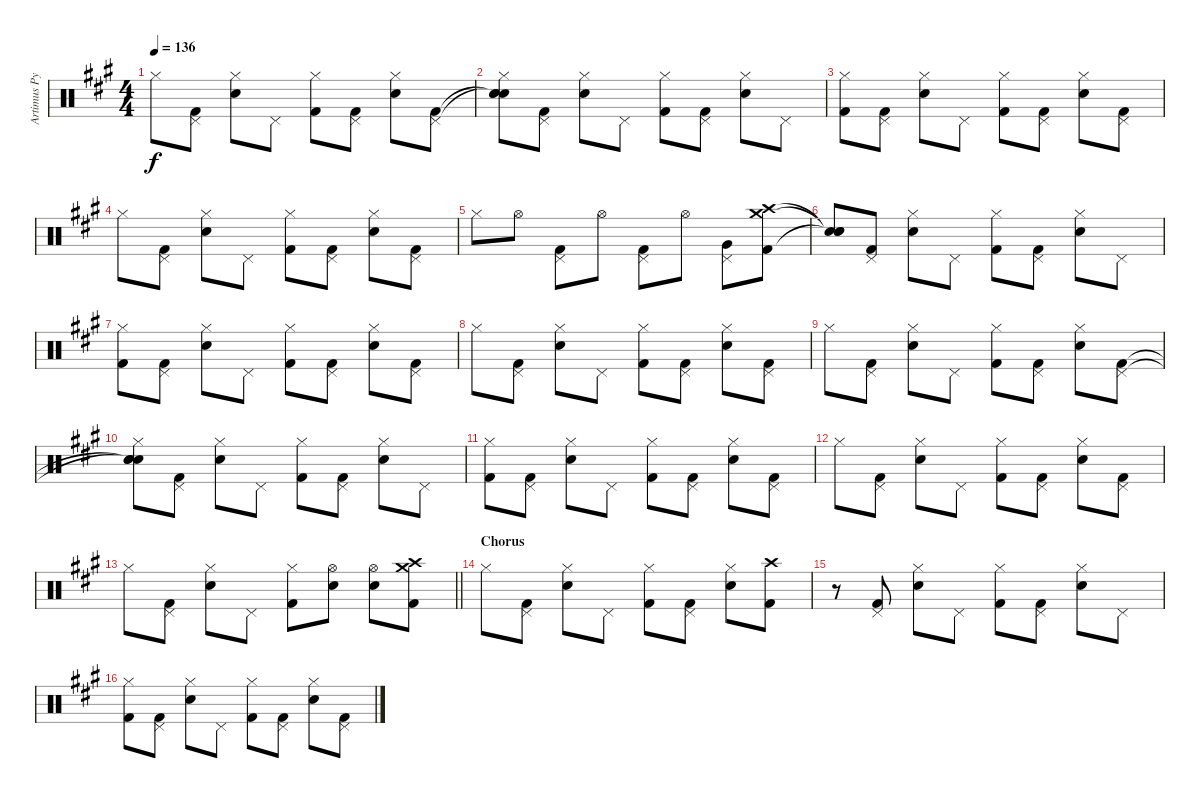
\track ("Artimus Pyle - Drums" "Artimus Py") {instrument percussion}
\staff {score}
\articulation defaults
\ts (4 4)
\tempo 136
\clef neutral
\ks a "Hi-Hat (closed)".8{dy f}
("Pedal Hi-Hat (hit)" "Kick (hit) 2").8 ("Snare (hit) 2" "Hi-Hat (closed)").8 "Pedal Hi-Hat (hit)".8 ("Hi-Hat (closed)" "Kick (hit) 2").8 ("Pedal Hi-Hat (hit)" "Kick (hit) 2").8 ("Snare (hit) 2" "Hi-Hat (closed)").8 ("Pedal Hi-Hat (hit)" "Kick (hit) 2").8 |
("Snare (hit)"{t} "Snare (hit)"{t} "Hi-Hat (closed)" "Snare (hit)").8 ("Pedal Hi-Hat (hit)" "Kick (hit) 2").8 ("Snare (hit) 2" "Hi-Hat (closed)").8 "Pedal Hi-Hat (hit)".8 ("Hi-Hat (closed)" "Kick (hit) 2").8 ("Pedal Hi-Hat (hit)" "Kick (hit) 2").8 ("Snare (hit) 2" "Hi-Hat (closed)").8 "Pedal Hi-Hat (hit)".8 |
("Hi-Hat (closed)" "Kick (hit) 2").8 ("Pedal Hi-Hat (hit)" "Kick (hit) 2").8 ("Snare (hit) 2" "Hi-Hat (closed)").8 "Pedal Hi-Hat (hit)".8 ("Hi-Hat (closed)" "Kick (hit) 2").8 ("Pedal Hi-Hat (hit)" "Kick (hit) 2").8 ("Snare (hit) 2" "Hi-Hat (closed)").8 ("Pedal Hi-Hat (hit)" "Kick (hit) 2").8 |
"Hi-Hat (closed)".8 ("Pedal Hi-Hat (hit)" "Kick (hit) 2").8 ("Snare (hit) 2" "Hi-Hat (closed)").8 "Pedal Hi-Hat (hit)".8 ("Hi-Hat (closed)" "Kick (hit) 2").8 ("Pedal Hi-Hat (hit)" "Kick (hit) 2").8 ("Snare (hit) 2" "Hi-Hat (closed)").8 ("Pedal Hi-Hat (hit)" "Kick (hit) 2").8 |
"Hi-Hat (closed)".8 "Hi-Hat (open)".8 ("Pedal Hi-Hat (hit)" "Kick (hit) 2").8 "Hi-Hat (open)".8 ("Pedal Hi-Hat (hit)" "Kick (hit) 2").8 "Hi-Hat (open)".8 ("Pedal Hi-Hat (hit)" "Very Low Tom (hit)").8 ("Crash medium (hit)" "Crash high (hit)" "Kick (hit) 2").8 |
("Snare (hit)"{t} "Snare (hit)"{t} "Snare (hit)"{t}).8 ("Pedal Hi-Hat (hit)" "Kick (hit) 2").8 ("Snare (hit) 2" "Hi-Hat (closed)").8 "Pedal Hi-Hat (hit)".8 ("Hi-Hat (closed)" "Kick (hit) 2").8 ("Pedal Hi-Hat (hit)" "Kick (hit) 2").8 ("Snare (hit) 2" "Hi-Hat (closed)").8 "Pedal Hi-Hat (hit)".8 |
("Hi-Hat (closed)" "Kick (hit) 2").8 ("Pedal Hi-Hat (hit)" "Kick (hit) 2").8 ("Snare (hit) 2" "Hi-Hat (closed)").8 "Pedal Hi-Hat (hit)".8 ("Hi-Hat (closed)" "Kick (hit) 2").8 ("Pedal Hi-Hat (hit)" "Kick (hit) 2").8 ("Snare (hit) 2" "Hi-Hat (closed)").8 ("Pedal Hi-Hat (hit)" "Kick (hit) 2").8 |
"Hi-Hat (closed)".8 ("Pedal Hi-Hat (hit)" "Kick (hit) 2").8 ("Snare (hit) 2" "Hi-Hat (closed)").8 "Pedal Hi-Hat (hit)".8 ("Hi-Hat (closed)" "Kick (hit) 2").8 ("Pedal Hi-Hat (hit)" "Kick (hit) 2").8 ("Snare (hit) 2" "Hi-Hat (closed)").8 ("Pedal Hi-Hat (hit)" "Kick (hit) 2").8 |
"Hi-Hat (closed)".8 ("Pedal Hi-Hat (hit)" "Kick (hit) 2").8 ("Snare (hit) 2" "Hi-Hat (closed)").8 "Pedal Hi-Hat (hit)".8 ("Hi-Hat (closed)" "Kick (hit) 2").8 ("Pedal Hi-Hat (hit)" "Kick (hit) 2").8 ("Snare (hit) 2" "Hi-Hat (closed)").8 ("Pedal Hi-Hat (hit)" "Kick (hit) 2").8 |
("Snare (hit)"{t} "Snare (hit)"{t} "Hi-Hat (closed)" "Snare (hit)").8 ("Pedal Hi-Hat (hit)" "Kick (hit) 2").8 ("Snare (hit) 2" "Hi-Hat (closed)").8 "Pedal Hi-Hat (hit)".8 ("Hi-Hat (closed)" "Kick (hit) 2").8 ("Pedal Hi-Hat (hit)" "Kick (hit) 2").8 ("Snare (hit) 2" "Hi-Hat (closed)").8 "Pedal Hi-Hat (hit)".8 |
("Hi-Hat (closed)" "Kick (hit) 2").8 ("Pedal Hi-Hat (hit)" "Kick (hit) 2").8 ("Snare (hit) 2" "Hi-Hat (closed)").8 "Pedal Hi-Hat (hit)".8 ("Hi-Hat (closed)" "Kick (hit) 2").8 ("Pedal Hi-Hat (hit)" "Kick (hit) 2").8 ("Snare (hit) 2" "Hi-Hat (closed)").8 ("Pedal Hi-Hat (hit)" "Kick (hit) 2").8 |
"Hi-Hat (closed)".8 ("Pedal Hi-Hat (hit)" "Kick (hit) 2").8 ("Snare (hit) 2" "Hi-Hat (closed)").8 "Pedal Hi-Hat (hit)".8 ("Hi-Hat (closed)" "Kick (hit) 2").8 ("Pedal Hi-Hat (hit)" "Kick (hit) 2").8 ("Snare (hit) 2" "Hi-Hat (closed)").8 ("Pedal Hi-Hat (hit)" "Kick (hit) 2").8 |
\barLineRight lightlight "Hi-Hat (closed)".8
("Pedal Hi-Hat (hit)" "Kick (hit) 2").8 ("Snare (hit) 2" "Hi-Hat (closed)").8 "Pedal Hi-Hat (hit)".8 ("Hi-Hat (closed)" "Kick (hit) 2").8 ("Snare (hit) 2" "Hi-Hat (open)").8 ("Snare (hit) 2" "Hi-Hat (open)").8 ("Crash medium (hit)" "Crash high (hit)" "Kick (hit) 2").8 |
\section ("" "Chorus")
"Hi-Hat (closed)".8 ("Pedal Hi-Hat (hit)" "Kick (hit) 2").8 ("Snare (hit) 2" "Hi-Hat (closed)").8 "Pedal Hi-Hat (hit)".8 ("Hi-Hat (closed)" "Kick (hit) 2").8 ("Pedal Hi-Hat (hit)" "Kick (hit) 2").8 ("Snare (hit) 2" "Hi-Hat (closed)").8 ("Crash high (hit)" "Kick (hit) 2").8 |
r.8 ("Pedal Hi-Hat (hit)" "Kick (hit) 2").8 ("Snare (hit) 2" "Hi-Hat (closed)").8 "Pedal Hi-Hat (hit)".8 ("Hi-Hat (closed)" "Kick (hit) 2").8 ("Pedal Hi-Hat (hit)" "Kick (hit) 2").8 ("Snare (hit) 2" "Hi-Hat (closed)").8 "Pedal Hi-Hat (hit)".8 |
("Hi-Hat (closed)" "Kick (hit) 2").8 ("Pedal Hi-Hat (hit)" "Kick (hit) 2").8 ("Snare (hit) 2" "Hi-Hat (closed)").8 "Pedal Hi-Hat (hit)".8 ("Hi-Hat (closed)" "Kick (hit) 2").8 ("Pedal Hi-Hat (hit)" "Kick (hit) 2").8 ("Snare (hit) 2" "Hi-Hat (closed)").8 ("Pedal Hi-Hat (hit)" "Kick (hit) 2").8
